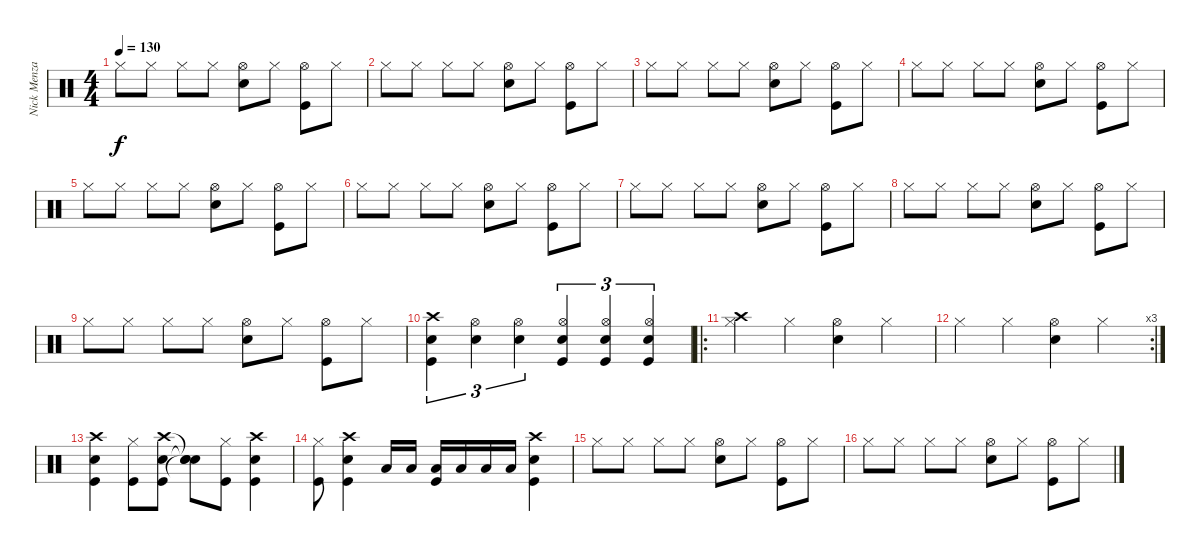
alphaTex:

\track ("Nick Menza" "Nick Menza") {instrument percussion}
\staff {score}
\articulation defaults
\ts (4 4)
\tempo 130
\clef neutral
\ks c "Hi-Hat (closed)".8{dy f} "Hi-Hat (closed)".8 "Hi-Hat (closed)".8 "Hi-Hat (closed)".8
("Snare (hit) 2" "Hi-Hat (open)").8 "Hi-Hat (closed)".8 ("Hi-Hat (open)" "Kick (hit)").8 "Hi-Hat (closed)".8 |
"Hi-Hat (closed)".8 "Hi-Hat (closed)".8 "Hi-Hat (closed)".8 "Hi-Hat (closed)".8 ("Snare (hit) 2" "Hi-Hat (open)").8 "Hi-Hat (closed)".8 ("Hi-Hat (open)" "Kick (hit)").8 "Hi-Hat (closed)".8 |
"Hi-Hat (closed)".8 "Hi-Hat (closed)".8 "Hi-Hat (closed)".8 "Hi-Hat (closed)".8 ("Snare (hit) 2" "Hi-Hat (open)").8 "Hi-Hat (closed)".8 ("Hi-Hat (open)" "Kick (hit)").8 "Hi-Hat (closed)".8 |
"Hi-Hat (closed)".8 "Hi-Hat (closed)".8 "Hi-Hat (closed)".8 "Hi-Hat (closed)".8 ("Snare (hit) 2" "Hi-Hat (open)").8 "Hi-Hat (closed)".8 ("Hi-Hat (open)" "Kick (hit)").8 "Hi-Hat (closed)".8 |
"Hi-Hat (closed)".8 "Hi-Hat (closed)".8 "Hi-Hat (closed)".8 "Hi-Hat (closed)".8 ("Snare (hit) 2" "Hi-Hat (open)").8 "Hi-Hat (closed)".8 ("Hi-Hat (open)" "Kick (hit)").8 "Hi-Hat (closed)".8 |
"Hi-Hat (closed)".8 "Hi-Hat (closed)".8 "Hi-Hat (closed)".8 "Hi-Hat (closed)".8 ("Snare (hit) 2" "Hi-Hat (open)").8 "Hi-Hat (closed)".8 ("Hi-Hat (open)" "Kick (hit)").8 "Hi-Hat (closed)".8 |
"Hi-Hat (closed)".8 "Hi-Hat (closed)".8 "Hi-Hat (closed)".8 "Hi-Hat (closed)".8 ("Snare (hit) 2" "Hi-Hat (open)").8 "Hi-Hat (closed)".8 ("Hi-Hat (open)" "Kick (hit)").8 "Hi-Hat (closed)".8 |
"Hi-Hat (closed)".8 "Hi-Hat (closed)".8 "Hi-Hat (closed)".8 "Hi-Hat (closed)".8 ("Snare (hit) 2" "Hi-Hat (open)").8 "Hi-Hat (closed)".8 ("Hi-Hat (open)" "Kick (hit)").8 "Hi-Hat (closed)".8 |
"Hi-Hat (closed)".8 "Hi-Hat (closed)".8 "Hi-Hat (closed)".8 "Hi-Hat (closed)".8 ("Snare (hit) 2" "Hi-Hat (open)").8 "Hi-Hat (closed)".8 ("Hi-Hat (open)" "Kick (hit)").8 "Hi-Hat (closed)".8 |
("Crash high (hit)" "Snare (hit) 2" "Kick (hit)").4{tu (3 2)} ("Hi-Hat (open)" "Snare (hit) 2").4{tu (3 2)} ("Hi-Hat (open)" "Snare (hit) 2").4{tu (3 2)} ("Hi-Hat (open)" "Snare (hit) 2" "Kick (hit)").4{tu (3 2)} ("Hi-Hat (open)" "Snare (hit) 2" "Kick (hit)").4{tu (3 2)} ("Hi-Hat (open)" "Snare (hit) 2" "Kick (hit)").4{tu (3 2)} |
\ro
("Crash high (hit)" "Hi-Hat (closed)").4 "Hi-Hat (closed)".4 ("Hi-Hat (open)" "Snare (hit) 2").4 "Hi-Hat (closed)".4 |
\rc 3 "Hi-Hat (closed)".4 "Hi-Hat (closed)".4
("Snare (hit) 2" "Hi-Hat (open)").4 "Hi-Hat (closed)".4 |
("Crash high (hit)" "Snare (hit) 2" "Kick (hit)").4 ("Hi-Hat (closed)" "Kick (hit)").8 ("Crash high (hit)" "Snare (hit) 2" "Kick (hit)").8 ("Snare (hit)"{t} "Snare (hit)"{t} "Snare (hit)"{t}).8 ("Hi-Hat (closed)" "Kick (hit)").8 ("Crash high (hit)" "Snare (hit) 2" "Kick (hit)").4 |
("Hi-Hat (closed)" "Kick (hit)").8 ("Snare (hit) 2" "Crash high (hit)" "Kick (hit)").4 "Low Floor Tom (hit)".16 "Low Floor Tom (hit)".16 ("Low Floor Tom (hit)" "Kick (hit)").16 "Low Floor Tom (hit)".16 "Low Floor Tom (hit)".16 "Low Floor Tom (hit)".16 ("Crash high (hit)" "Snare (hit) 2" "Kick (hit)").4 |
"Hi-Hat (closed)".8 "Hi-Hat (closed)".8 "Hi-Hat (closed)".8 "Hi-Hat (closed)".8 ("Snare (hit) 2" "Hi-Hat (open)").8 "Hi-Hat (closed)".8 ("Hi-Hat (open)" "Kick (hit)").8 "Hi-Hat (closed)".8 |
"Hi-Hat (closed)".8 "Hi-Hat (closed)".8 "Hi-Hat (closed)".8 "Hi-Hat (closed)".8 ("Snare (hit) 2" "Hi-Hat (open)").8 "Hi-Hat (closed)".8 ("Hi-Hat (open)" "Kick (hit)").8 "Hi-Hat (closed)".8
